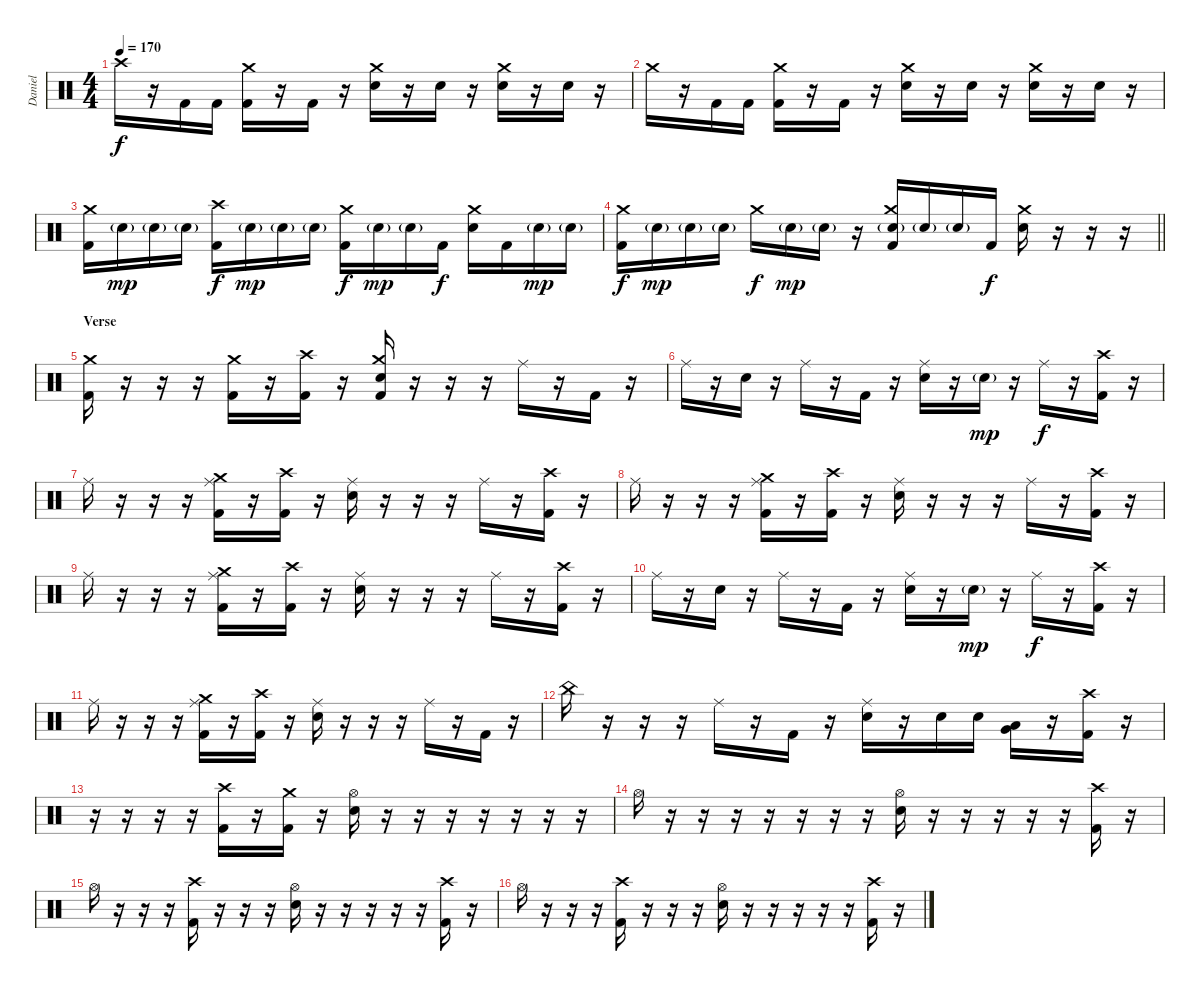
\track ("Daniel" "Daniel") {instrument percussion}
\staff {score}
\articulation defaults
\ts (4 4)
\tempo 170
\clef neutral
\ks c "Crash high (hit)".16{dy f}
r.16 "Kick (hit) 2".16 "Kick (hit) 2".16 ("Crash medium (hit)" "Kick (hit) 2").16 r.16 "Kick (hit) 2".16 r.16 ("Crash medium (hit)" "Snare (hit) 2").16 r.16 "Snare (hit) 2".16 r.16 ("Crash medium (hit)" "Snare (hit) 2").16 r.16 "Snare (hit) 2".16 r.16 |
"Crash medium (hit)".16 r.16 "Kick (hit) 2".16 "Kick (hit) 2".16 ("Crash medium (hit)" "Kick (hit) 2").16 r.16 "Kick (hit) 2".16 r.16 ("Crash medium (hit)" "Snare (hit) 2").16 r.16 "Snare (hit) 2".16 r.16 ("Crash medium (hit)" "Snare (hit) 2").16 r.16 "Snare (hit) 2".16 r.16 |
("Crash medium (hit)" "Kick (hit) 2").16 "Snare (hit) 2"{g}.16{dy mp} "Snare (hit) 2"{g}.16 "Snare (hit) 2"{g}.16 ("Crash high (hit)" "Kick (hit) 2").16{dy f} "Snare (hit) 2"{g}.16{dy mp} "Snare (hit) 2"{g}.16 "Snare (hit) 2"{g}.16 ("Crash medium (hit)" "Kick (hit) 2").16{dy f} "Snare (hit) 2"{g}.16{dy mp} "Snare (hit) 2"{g}.16 "Kick (hit) 2".16{dy f} ("Crash medium (hit)" "Snare (hit) 2").16 "Kick (hit) 2".16 "Snare (hit) 2"{g}.16{dy mp} "Snare (hit) 2"{g}.16 |
\barLineRight lightlight
("Crash medium (hit)" "Kick (hit) 2").16{dy f} "Snare (hit) 2"{g}.16{dy mp} "Snare (hit) 2"{g}.16 "Snare (hit) 2"{g}.16 "Crash medium (hit)".16{dy f} "Snare (hit) 2"{g}.16{dy mp} "Snare (hit) 2"{g}.16 r.16 ("Crash medium (hit)" "Snare (hit) 2"{g} "Kick (hit) 2").16 "Snare (hit) 2"{g}.16 "Snare (hit) 2"{g}.16 "Kick (hit) 2".16{dy f} ("Crash medium (hit)" "Snare (hit) 2").16 r.16 r.16 r.16 |
\section ("" "Verse")
("Crash medium (hit)" "Kick (hit) 2").16 r.16 r.16 r.16 ("Crash medium (hit)" "Kick (hit) 2").16 r.16 ("Crash high (hit)" "Kick (hit) 2").16 r.16 ("Crash medium (hit)" "Snare (hit) 2" "Kick (hit) 2").16 r.16 r.16 r.16 "Ride (middle)".16 r.16 "Kick (hit) 2".16 r.16 |
"Ride (middle)".16 r.16 "Snare (hit) 2".16 r.16 "Ride (middle)".16 r.16 "Kick (hit) 2".16 r.16 ("Ride (middle)" "Snare (hit) 2").16 r.16 "Snare (hit) 2"{g}.16{dy mp} r.16 "Ride (middle)".16{dy f} r.16 ("Crash high (hit)" "Kick (hit) 2").16 r.16 |
"Ride (middle)".16 r.16 r.16 r.16 ("Crash medium (hit)" "Ride (middle)" "Kick (hit) 2").16 r.16 ("Crash high (hit)" "Kick (hit) 2").16 r.16 ("Ride (middle)" "Snare (hit) 2").16 r.16 r.16 r.16 "Ride (middle)".16 r.16 ("Crash high (hit)" "Kick (hit) 2").16 r.16 |
"Ride (middle)".16 r.16 r.16 r.16 ("Crash medium (hit)" "Ride (middle)" "Kick (hit) 2").16 r.16 ("Crash high (hit)" "Kick (hit) 2").16 r.16 ("Ride (middle)" "Snare (hit) 2").16 r.16 r.16 r.16 "Ride (middle)".16 r.16 ("Crash high (hit)" "Kick (hit) 2").16 r.16 |
"Ride (middle)".16 r.16 r.16 r.16 ("Crash medium (hit)" "Ride (middle)" "Kick (hit) 2").16 r.16 ("Crash high (hit)" "Kick (hit) 2").16 r.16 ("Ride (middle)" "Snare (hit) 2").16 r.16 r.16 r.16 "Ride (middle)".16 r.16 ("Crash high (hit)" "Kick (hit) 2").16 r.16 |
"Ride (middle)".16 r.16 "Snare (hit) 2".16 r.16 "Ride (middle)".16 r.16 "Kick (hit) 2".16 r.16 ("Ride (middle)" "Snare (hit) 2").16 r.16 "Snare (hit) 2"{g}.16{dy mp} r.16 "Ride (middle)".16{dy f} r.16 ("Crash high (hit)" "Kick (hit) 2").16 r.16 |
"Ride (middle)".16 r.16 r.16 r.16 ("Crash medium (hit)" "Ride (middle)" "Kick (hit) 2").16 r.16 ("Crash high (hit)" "Kick (hit) 2").16 r.16 ("Ride (middle)" "Snare (hit) 2").16 r.16 r.16 r.16 "Ride (middle)".16 r.16 "Kick (hit) 2".16 r.16 |
"China (hit)".16 r.16 r.16 r.16 "Ride (middle)".16 r.16 "Kick (hit) 2".16 r.16 ("Ride (middle)" "Snare (hit) 2").16 r.16 "Snare (hit) 2".16 "Snare (hit) 2".16 ("Low Tom (hit)" "Very Low Tom (hit)").16 r.16 ("Crash high (hit)" "Kick (hit) 2").16 r.16 |
r.16 r.16 r.16 r.16 ("Crash high (hit)" "Kick (hit) 2").16 r.16 ("Crash medium (hit)" "Kick (hit) 2").16 r.16 ("Hi-Hat (open)" "Snare (hit) 2").16 r.16 r.16 r.16 r.16 r.16 r.16 r.16 |
"Hi-Hat (open)".16 r.16 r.16 r.16 r.16 r.16 r.16 r.16 ("Hi-Hat (open)" "Snare (hit) 2").16 r.16 r.16 r.16 r.16 r.16 ("Crash high (hit)" "Kick (hit) 2").16 r.16 |
"Hi-Hat (open)".16 r.16 r.16 r.16 ("Crash high (hit)" "Kick (hit) 2").16 r.16 r.16 r.16 ("Hi-Hat (open)" "Snare (hit) 2").16 r.16 r.16 r.16 r.16 r.16 ("Crash high (hit)" "Kick (hit) 2").16 r.16 |
"Hi-Hat (open)".16 r.16 r.16 r.16 ("Crash high (hit)" "Kick (hit) 2").16 r.16 r.16 r.16 ("Hi-Hat (open)" "Snare (hit) 2").16 r.16 r.16 r.16 r.16 r.16 ("Crash high (hit)" "Kick (hit) 2").16 r.16
